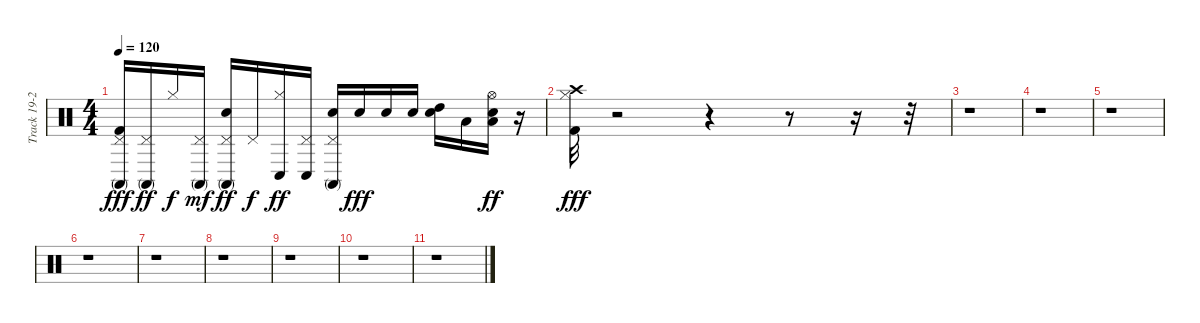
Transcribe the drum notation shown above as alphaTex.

\track ("Track 19-20-21" "Track 19-2") {instrument percussion}
\staff {score}
\articulation defaults
\ts (4 4)
\tempo 120
\clef neutral
\ks c
("Conga high (mute)" "Kick (hit) 2" "Pedal Hi-Hat (hit)").16{dy fff} ("Pedal Hi-Hat (hit)" "Conga high (mute)").16{dy ff} "Hi-Hat (closed)".16{dy f} ("Conga high (mute)" "Pedal Hi-Hat (hit)").16{dy mf} ("Conga high (mute)" "Snare (hit) 2" "Pedal Hi-Hat (hit)").16{dy ff} "Pedal Hi-Hat (hit)".16{dy f} ("Hi-Hat (closed)" "Conga low (hit)").16{dy ff} ("Pedal Hi-Hat (hit)" "Conga low (hit)").16 ("Conga high (mute)" "Snare (hit) 2" "Pedal Hi-Hat (hit)").16 "Snare (hit) 2".16{dy fff} "Snare (hit) 2".16 "Snare (hit) 2".16 ("High Tom (hit)" "Snare (hit) 2").16 "Low Tom (hit)".16 ("Hi-Hat (open)" "Low Floor Tom (hit)" "Snare (hit) 2").16{dy ff} r.16 |
("Crash high (hit)" "Hi-Hat (closed)" "Kick (hit) 2").32{dy fff} r.2 r.4 r.8 r.16 r.32 |
r.1 |
r.1 |
r.1 |
r.1 |
r.1 |
r.1 |
r.1 |
r.1 |
r.1
